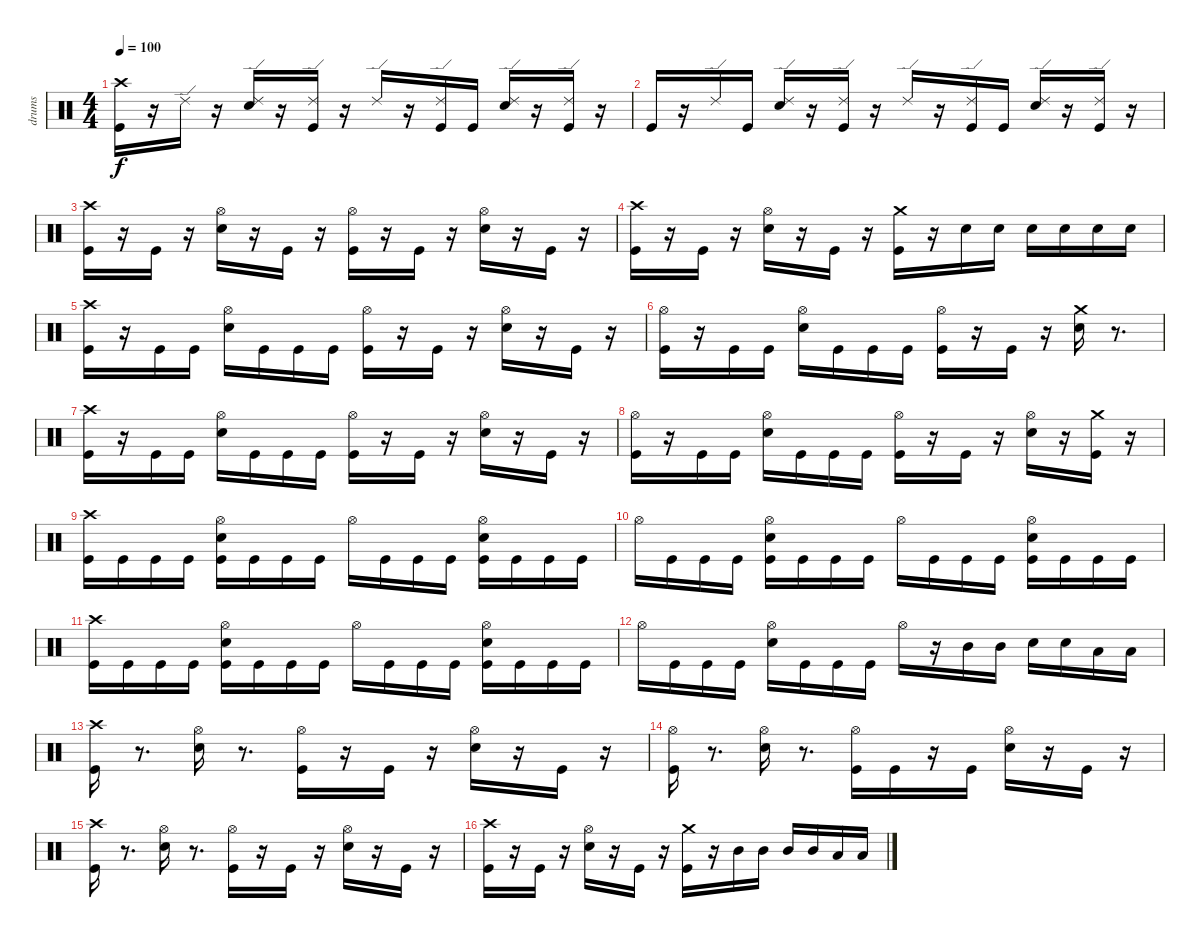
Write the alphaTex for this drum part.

\track ("drums" "drums") {instrument percussion}
\staff {score}
\articulation defaults
\ts (4 4)
\tempo 100
\clef neutral
\ks c
("Crash high (hit)" "Kick (hit)").16{dy f} r.16 "Ride (edge) 2".16 r.16 ("Ride (edge) 2" "Snare (hit) 2").16 r.16 ("Ride (edge) 2" "Kick (hit)").16 r.16 "Ride (edge) 2".16 r.16 ("Ride (edge) 2" "Kick (hit)").16 "Kick (hit)".16 ("Ride (edge) 2" "Snare (hit) 2").16 r.16 ("Ride (edge) 2" "Kick (hit)").16 r.16 |
"Kick (hit)".16 r.16 "Ride (edge) 2".16 "Kick (hit)".16 ("Ride (edge) 2" "Snare (hit) 2").16 r.16 ("Ride (edge) 2" "Kick (hit)").16 r.16 "Ride (edge) 2".16 r.16 ("Ride (edge) 2" "Kick (hit)").16 "Kick (hit)".16 ("Ride (edge) 2" "Snare (hit) 2").16 r.16 ("Ride (edge) 2" "Kick (hit)").16 r.16 |
("Crash high (hit)" "Kick (hit)").16 r.16 "Kick (hit)".16 r.16 ("Hi-Hat (open)" "Snare (hit) 2").16 r.16 "Kick (hit)".16 r.16 ("Hi-Hat (open)" "Kick (hit)").16 r.16 "Kick (hit)".16 r.16 ("Hi-Hat (open)" "Snare (hit) 2").16 r.16 "Kick (hit)".16 r.16 |
("Crash high (hit)" "Kick (hit)").16 r.16 "Kick (hit)".16 r.16 ("Hi-Hat (open)" "Snare (hit) 2").16 r.16 "Kick (hit)".16 r.16 ("Crash medium (hit)" "Kick (hit)").16 r.16 "Snare (hit) 2".16 "Snare (hit) 2".16 "Snare (hit) 2".16 "Snare (hit) 2".16 "Snare (hit) 2".16 "Snare (hit) 2".16 |
("Crash high (hit)" "Kick (hit)").16 r.16 "Kick (hit)".16 "Kick (hit)".16 ("Hi-Hat (open)" "Snare (hit) 2").16 "Kick (hit)".16 "Kick (hit)".16 "Kick (hit)".16 ("Hi-Hat (open)" "Kick (hit)").16 r.16 "Kick (hit)".16 r.16 ("Snare (hit) 2" "Hi-Hat (open)").16 r.16 "Kick (hit)".16 r.16 |
("Hi-Hat (open)" "Kick (hit)").16 r.16 "Kick (hit)".16 "Kick (hit)".16 ("Hi-Hat (open)" "Snare (hit) 2").16 "Kick (hit)".16 "Kick (hit)".16 "Kick (hit)".16 ("Hi-Hat (open)" "Kick (hit)").16 r.16 "Kick (hit)".16 r.16 ("Crash medium (hit)" "Snare (hit) 2").16 r.8{d} |
("Crash high (hit)" "Kick (hit)").16 r.16 "Kick (hit)".16 "Kick (hit)".16 ("Hi-Hat (open)" "Snare (hit) 2").16 "Kick (hit)".16 "Kick (hit)".16 "Kick (hit)".16 ("Hi-Hat (open)" "Kick (hit)").16 r.16 "Kick (hit)".16 r.16 ("Snare (hit) 2" "Hi-Hat (open)").16 r.16 "Kick (hit)".16 r.16 |
("Hi-Hat (open)" "Kick (hit)").16 r.16 "Kick (hit)".16 "Kick (hit)".16 ("Hi-Hat (open)" "Snare (hit) 2").16 "Kick (hit)".16 "Kick (hit)".16 "Kick (hit)".16 ("Hi-Hat (open)" "Kick (hit)").16 r.16 "Kick (hit)".16 r.16 ("Snare (hit) 2" "Hi-Hat (open)").16 r.16 ("Kick (hit)" "Crash medium (hit)").16 r.16 |
("Kick (hit)" "Crash high (hit)").16 "Kick (hit)".16 "Kick (hit)".16 "Kick (hit)".16 ("Kick (hit)" "Hi-Hat (open)" "Snare (hit) 2").16 "Kick (hit)".16 "Kick (hit)".16 "Kick (hit)".16 "Hi-Hat (open)".16 "Kick (hit)".16 "Kick (hit)".16 "Kick (hit)".16 ("Kick (hit)" "Snare (hit) 2" "Hi-Hat (open)").16 "Kick (hit)".16 "Kick (hit)".16 "Kick (hit)".16 |
"Hi-Hat (open)".16 "Kick (hit)".16 "Kick (hit)".16 "Kick (hit)".16 ("Kick (hit)" "Hi-Hat (open)" "Snare (hit) 2").16 "Kick (hit)".16 "Kick (hit)".16 "Kick (hit)".16 "Hi-Hat (open)".16 "Kick (hit)".16 "Kick (hit)".16 "Kick (hit)".16 ("Hi-Hat (open)" "Kick (hit)" "Snare (hit) 2").16 "Kick (hit)".16 "Kick (hit)".16 "Kick (hit)".16 |
("Crash high (hit)" "Kick (hit)").16 "Kick (hit)".16 "Kick (hit)".16 "Kick (hit)".16 ("Kick (hit)" "Hi-Hat (open)" "Snare (hit) 2").16 "Kick (hit)".16 "Kick (hit)".16 "Kick (hit)".16 "Hi-Hat (open)".16 "Kick (hit)".16 "Kick (hit)".16 "Kick (hit)".16 ("Kick (hit)" "Snare (hit) 2" "Hi-Hat (open)").16 "Kick (hit)".16 "Kick (hit)".16 "Kick (hit)".16 |
"Hi-Hat (open)".16 "Kick (hit)".16 "Kick (hit)".16 "Kick (hit)".16 ("Hi-Hat (open)" "Snare (hit) 2").16 "Kick (hit)".16 "Kick (hit)".16 "Kick (hit)".16 "Hi-Hat (open)".16 r.16 "Mid Tom (hit)".16 "Mid Tom (hit)".16 "Snare (hit) 2".16 "Snare (hit) 2".16 "Low Tom (hit)".16 "Low Tom (hit)".16 |
("Crash high (hit)" "Kick (hit)").16 r.8{d} ("Hi-Hat (open)" "Snare (hit) 2").16 r.8{d} ("Hi-Hat (open)" "Kick (hit)").16 r.16 "Kick (hit)".16 r.16 ("Hi-Hat (open)" "Snare (hit) 2").16 r.16 "Kick (hit)".16 r.16 |
("Hi-Hat (open)" "Kick (hit)").16 r.8{d} ("Hi-Hat (open)" "Snare (hit) 2").16 r.8{d} ("Hi-Hat (open)" "Kick (hit)").16 "Kick (hit)".16 r.16 "Kick (hit)".16 ("Hi-Hat (open)" "Snare (hit) 2").16 r.16 "Kick (hit)".16 r.16 |
("Crash high (hit)" "Kick (hit)").16 r.8{d} ("Hi-Hat (open)" "Snare (hit) 2").16 r.8{d} ("Hi-Hat (open)" "Kick (hit)").16 r.16 "Kick (hit)".16 r.16 ("Hi-Hat (open)" "Snare (hit) 2").16 r.16 "Kick (hit)".16 r.16 |
("Crash high (hit)" "Kick (hit)").16 r.16 "Kick (hit)".16 r.16 ("Hi-Hat (open)" "Snare (hit) 2").16 r.16 "Kick (hit)".16 r.16 ("Crash medium (hit)" "Kick (hit)").16 r.16 "Mid Tom (hit)".16 "Mid Tom (hit)".16 "Mid Tom (hit)".16 "Mid Tom (hit)".16 "Low Tom (hit)".16 "Low Tom (hit)".16
